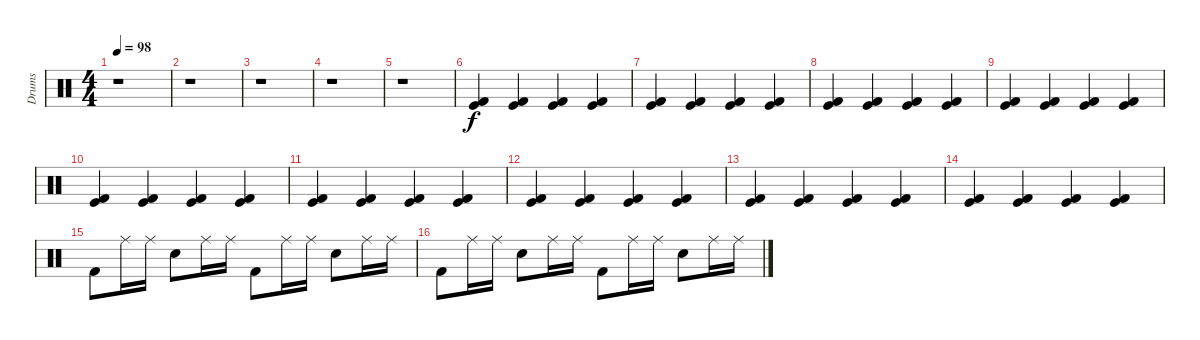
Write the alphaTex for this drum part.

\track ("Drums" "Drums") {instrument percussion}
\staff {score}
\articulation defaults
\ts (4 4)
\tempo 98
\clef neutral
\ks c
r.1{dy f} |
r.1 |
r.1 |
r.1 |
r.1 |
("Kick (hit)" "Kick (hit) 2").4 ("Kick (hit)" "Kick (hit) 2").4 ("Kick (hit)" "Kick (hit) 2").4 ("Kick (hit)" "Kick (hit) 2").4 |
("Kick (hit)" "Kick (hit) 2").4 ("Kick (hit)" "Kick (hit) 2").4 ("Kick (hit)" "Kick (hit) 2").4 ("Kick (hit)" "Kick (hit) 2").4 |
("Kick (hit)" "Kick (hit) 2").4 ("Kick (hit)" "Kick (hit) 2").4 ("Kick (hit)" "Kick (hit) 2").4 ("Kick (hit)" "Kick (hit) 2").4 |
("Kick (hit)" "Kick (hit) 2").4 ("Kick (hit)" "Kick (hit) 2").4 ("Kick (hit)" "Kick (hit) 2").4 ("Kick (hit)" "Kick (hit) 2").4 |
("Kick (hit)" "Kick (hit) 2").4 ("Kick (hit)" "Kick (hit) 2").4 ("Kick (hit)" "Kick (hit) 2").4 ("Kick (hit)" "Kick (hit) 2").4 |
("Kick (hit)" "Kick (hit) 2").4 ("Kick (hit)" "Kick (hit) 2").4 ("Kick (hit)" "Kick (hit) 2").4 ("Kick (hit)" "Kick (hit) 2").4 |
("Kick (hit)" "Kick (hit) 2").4 ("Kick (hit)" "Kick (hit) 2").4 ("Kick (hit)" "Kick (hit) 2").4 ("Kick (hit)" "Kick (hit) 2").4 |
("Kick (hit)" "Kick (hit) 2").4 ("Kick (hit)" "Kick (hit) 2").4 ("Kick (hit)" "Kick (hit) 2").4 ("Kick (hit)" "Kick (hit) 2").4 |
("Kick (hit)" "Kick (hit) 2").4 ("Kick (hit)" "Kick (hit) 2").4 ("Kick (hit)" "Kick (hit) 2").4 ("Kick (hit)" "Kick (hit) 2").4 |
"Kick (hit) 2".8 "Ride (middle)".16 "Ride (middle)".16 "Snare (hit) 2".8 "Ride (middle)".16 "Ride (middle)".16 "Kick (hit) 2".8 "Ride (middle)".16 "Ride (middle)".16 "Snare (hit) 2".8 "Ride (middle)".16 "Ride (middle)".16 |
"Kick (hit) 2".8 "Ride (middle)".16 "Ride (middle)".16 "Snare (hit) 2".8 "Ride (middle)".16 "Ride (middle)".16 "Kick (hit) 2".8 "Ride (middle)".16 "Ride (middle)".16 "Snare (hit) 2".8 "Ride (middle)".16 "Ride (middle)".16
